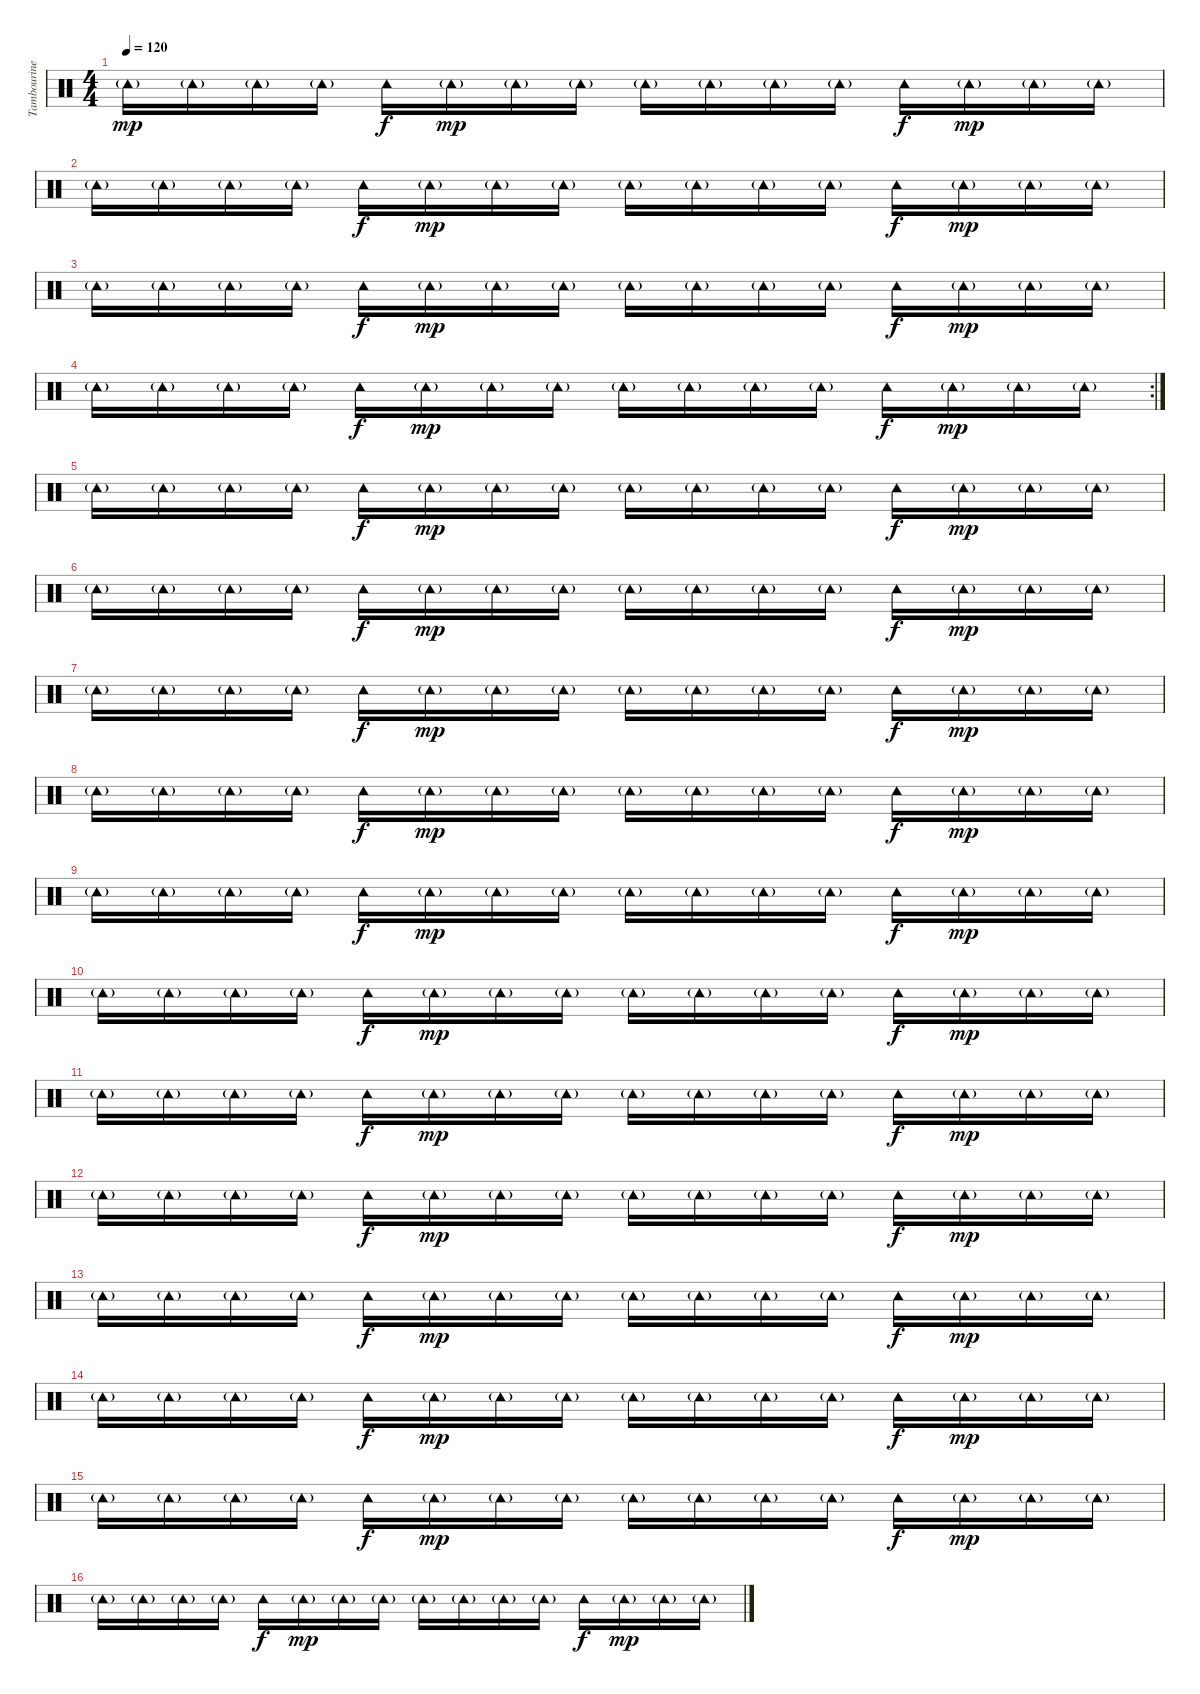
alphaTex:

\track ("Tambourine" "Tambourine") {instrument percussion}
\staff {score}
\articulation defaults
\ts (4 4)
\tempo 120
\clef neutral
\ks c "Tambourine (hit)"{g}.16{dy mp} "Tambourine (hit)"{g}.16 "Tambourine (hit)"{g}.16 "Tambourine (hit)"{g}.16 "Tambourine (hit)".16{dy f} "Tambourine (hit)"{g}.16{dy mp} "Tambourine (hit)"{g}.16 "Tambourine (hit)"{g}.16 "Tambourine (hit)"{g}.16 "Tambourine (hit)"{g}.16 "Tambourine (hit)"{g}.16 "Tambourine (hit)"{g}.16 "Tambourine (hit)".16{dy f} "Tambourine (hit)"{g}.16{dy mp} "Tambourine (hit)"{g}.16 "Tambourine (hit)"{g}.16
|
"Tambourine (hit)"{g}.16 "Tambourine (hit)"{g}.16 "Tambourine (hit)"{g}.16 "Tambourine (hit)"{g}.16 "Tambourine (hit)".16{dy f} "Tambourine (hit)"{g}.16{dy mp} "Tambourine (hit)"{g}.16 "Tambourine (hit)"{g}.16 "Tambourine (hit)"{g}.16 "Tambourine (hit)"{g}.16 "Tambourine (hit)"{g}.16 "Tambourine (hit)"{g}.16 "Tambourine (hit)".16{dy f} "Tambourine (hit)"{g}.16{dy mp} "Tambourine (hit)"{g}.16 "Tambourine (hit)"{g}.16 |
"Tambourine (hit)"{g}.16 "Tambourine (hit)"{g}.16 "Tambourine (hit)"{g}.16 "Tambourine (hit)"{g}.16 "Tambourine (hit)".16{dy f} "Tambourine (hit)"{g}.16{dy mp} "Tambourine (hit)"{g}.16 "Tambourine (hit)"{g}.16 "Tambourine (hit)"{g}.16 "Tambourine (hit)"{g}.16 "Tambourine (hit)"{g}.16 "Tambourine (hit)"{g}.16 "Tambourine (hit)".16{dy f} "Tambourine (hit)"{g}.16{dy mp} "Tambourine (hit)"{g}.16 "Tambourine (hit)"{g}.16 |
\rc 2 "Tambourine (hit)"{g}.16 "Tambourine (hit)"{g}.16 "Tambourine (hit)"{g}.16 "Tambourine (hit)"{g}.16 "Tambourine (hit)".16{dy f} "Tambourine (hit)"{g}.16{dy mp} "Tambourine (hit)"{g}.16 "Tambourine (hit)"{g}.16 "Tambourine (hit)"{g}.16 "Tambourine (hit)"{g}.16 "Tambourine (hit)"{g}.16 "Tambourine (hit)"{g}.16 "Tambourine (hit)".16{dy f} "Tambourine (hit)"{g}.16{dy mp} "Tambourine (hit)"{g}.16 "Tambourine (hit)"{g}.16
|
"Tambourine (hit)"{g}.16 "Tambourine (hit)"{g}.16 "Tambourine (hit)"{g}.16 "Tambourine (hit)"{g}.16 "Tambourine (hit)".16{dy f} "Tambourine (hit)"{g}.16{dy mp} "Tambourine (hit)"{g}.16 "Tambourine (hit)"{g}.16 "Tambourine (hit)"{g}.16 "Tambourine (hit)"{g}.16 "Tambourine (hit)"{g}.16 "Tambourine (hit)"{g}.16 "Tambourine (hit)".16{dy f} "Tambourine (hit)"{g}.16{dy mp} "Tambourine (hit)"{g}.16 "Tambourine (hit)"{g}.16 |
"Tambourine (hit)"{g}.16 "Tambourine (hit)"{g}.16 "Tambourine (hit)"{g}.16 "Tambourine (hit)"{g}.16 "Tambourine (hit)".16{dy f} "Tambourine (hit)"{g}.16{dy mp} "Tambourine (hit)"{g}.16 "Tambourine (hit)"{g}.16 "Tambourine (hit)"{g}.16 "Tambourine (hit)"{g}.16 "Tambourine (hit)"{g}.16 "Tambourine (hit)"{g}.16 "Tambourine (hit)".16{dy f} "Tambourine (hit)"{g}.16{dy mp} "Tambourine (hit)"{g}.16 "Tambourine (hit)"{g}.16 |
"Tambourine (hit)"{g}.16 "Tambourine (hit)"{g}.16 "Tambourine (hit)"{g}.16 "Tambourine (hit)"{g}.16 "Tambourine (hit)".16{dy f} "Tambourine (hit)"{g}.16{dy mp} "Tambourine (hit)"{g}.16 "Tambourine (hit)"{g}.16 "Tambourine (hit)"{g}.16 "Tambourine (hit)"{g}.16 "Tambourine (hit)"{g}.16 "Tambourine (hit)"{g}.16 "Tambourine (hit)".16{dy f} "Tambourine (hit)"{g}.16{dy mp} "Tambourine (hit)"{g}.16 "Tambourine (hit)"{g}.16 |
"Tambourine (hit)"{g}.16 "Tambourine (hit)"{g}.16 "Tambourine (hit)"{g}.16 "Tambourine (hit)"{g}.16 "Tambourine (hit)".16{dy f} "Tambourine (hit)"{g}.16{dy mp} "Tambourine (hit)"{g}.16 "Tambourine (hit)"{g}.16 "Tambourine (hit)"{g}.16 "Tambourine (hit)"{g}.16 "Tambourine (hit)"{g}.16 "Tambourine (hit)"{g}.16 "Tambourine (hit)".16{dy f} "Tambourine (hit)"{g}.16{dy mp} "Tambourine (hit)"{g}.16 "Tambourine (hit)"{g}.16 |
"Tambourine (hit)"{g}.16 "Tambourine (hit)"{g}.16 "Tambourine (hit)"{g}.16 "Tambourine (hit)"{g}.16 "Tambourine (hit)".16{dy f} "Tambourine (hit)"{g}.16{dy mp} "Tambourine (hit)"{g}.16 "Tambourine (hit)"{g}.16 "Tambourine (hit)"{g}.16 "Tambourine (hit)"{g}.16 "Tambourine (hit)"{g}.16 "Tambourine (hit)"{g}.16 "Tambourine (hit)".16{dy f} "Tambourine (hit)"{g}.16{dy mp} "Tambourine (hit)"{g}.16 "Tambourine (hit)"{g}.16 |
"Tambourine (hit)"{g}.16 "Tambourine (hit)"{g}.16 "Tambourine (hit)"{g}.16 "Tambourine (hit)"{g}.16 "Tambourine (hit)".16{dy f} "Tambourine (hit)"{g}.16{dy mp} "Tambourine (hit)"{g}.16 "Tambourine (hit)"{g}.16 "Tambourine (hit)"{g}.16 "Tambourine (hit)"{g}.16 "Tambourine (hit)"{g}.16 "Tambourine (hit)"{g}.16 "Tambourine (hit)".16{dy f} "Tambourine (hit)"{g}.16{dy mp} "Tambourine (hit)"{g}.16 "Tambourine (hit)"{g}.16 |
"Tambourine (hit)"{g}.16 "Tambourine (hit)"{g}.16 "Tambourine (hit)"{g}.16 "Tambourine (hit)"{g}.16 "Tambourine (hit)".16{dy f} "Tambourine (hit)"{g}.16{dy mp} "Tambourine (hit)"{g}.16 "Tambourine (hit)"{g}.16 "Tambourine (hit)"{g}.16 "Tambourine (hit)"{g}.16 "Tambourine (hit)"{g}.16 "Tambourine (hit)"{g}.16 "Tambourine (hit)".16{dy f} "Tambourine (hit)"{g}.16{dy mp} "Tambourine (hit)"{g}.16 "Tambourine (hit)"{g}.16 |
"Tambourine (hit)"{g}.16 "Tambourine (hit)"{g}.16 "Tambourine (hit)"{g}.16 "Tambourine (hit)"{g}.16 "Tambourine (hit)".16{dy f} "Tambourine (hit)"{g}.16{dy mp} "Tambourine (hit)"{g}.16 "Tambourine (hit)"{g}.16 "Tambourine (hit)"{g}.16 "Tambourine (hit)"{g}.16 "Tambourine (hit)"{g}.16 "Tambourine (hit)"{g}.16 "Tambourine (hit)".16{dy f} "Tambourine (hit)"{g}.16{dy mp} "Tambourine (hit)"{g}.16 "Tambourine (hit)"{g}.16 |
"Tambourine (hit)"{g}.16 "Tambourine (hit)"{g}.16 "Tambourine (hit)"{g}.16 "Tambourine (hit)"{g}.16 "Tambourine (hit)".16{dy f} "Tambourine (hit)"{g}.16{dy mp} "Tambourine (hit)"{g}.16 "Tambourine (hit)"{g}.16 "Tambourine (hit)"{g}.16 "Tambourine (hit)"{g}.16 "Tambourine (hit)"{g}.16 "Tambourine (hit)"{g}.16 "Tambourine (hit)".16{dy f} "Tambourine (hit)"{g}.16{dy mp} "Tambourine (hit)"{g}.16 "Tambourine (hit)"{g}.16 |
"Tambourine (hit)"{g}.16 "Tambourine (hit)"{g}.16 "Tambourine (hit)"{g}.16 "Tambourine (hit)"{g}.16 "Tambourine (hit)".16{dy f} "Tambourine (hit)"{g}.16{dy mp} "Tambourine (hit)"{g}.16 "Tambourine (hit)"{g}.16 "Tambourine (hit)"{g}.16 "Tambourine (hit)"{g}.16 "Tambourine (hit)"{g}.16 "Tambourine (hit)"{g}.16 "Tambourine (hit)".16{dy f} "Tambourine (hit)"{g}.16{dy mp} "Tambourine (hit)"{g}.16 "Tambourine (hit)"{g}.16 |
"Tambourine (hit)"{g}.16 "Tambourine (hit)"{g}.16 "Tambourine (hit)"{g}.16 "Tambourine (hit)"{g}.16 "Tambourine (hit)".16{dy f} "Tambourine (hit)"{g}.16{dy mp} "Tambourine (hit)"{g}.16 "Tambourine (hit)"{g}.16 "Tambourine (hit)"{g}.16 "Tambourine (hit)"{g}.16 "Tambourine (hit)"{g}.16 "Tambourine (hit)"{g}.16 "Tambourine (hit)".16{dy f} "Tambourine (hit)"{g}.16{dy mp} "Tambourine (hit)"{g}.16 "Tambourine (hit)"{g}.16 |
"Tambourine (hit)"{g}.16 "Tambourine (hit)"{g}.16 "Tambourine (hit)"{g}.16 "Tambourine (hit)"{g}.16 "Tambourine (hit)".16{dy f} "Tambourine (hit)"{g}.16{dy mp} "Tambourine (hit)"{g}.16 "Tambourine (hit)"{g}.16 "Tambourine (hit)"{g}.16 "Tambourine (hit)"{g}.16 "Tambourine (hit)"{g}.16 "Tambourine (hit)"{g}.16 "Tambourine (hit)".16{dy f} "Tambourine (hit)"{g}.16{dy mp} "Tambourine (hit)"{g}.16 "Tambourine (hit)"{g}.16
